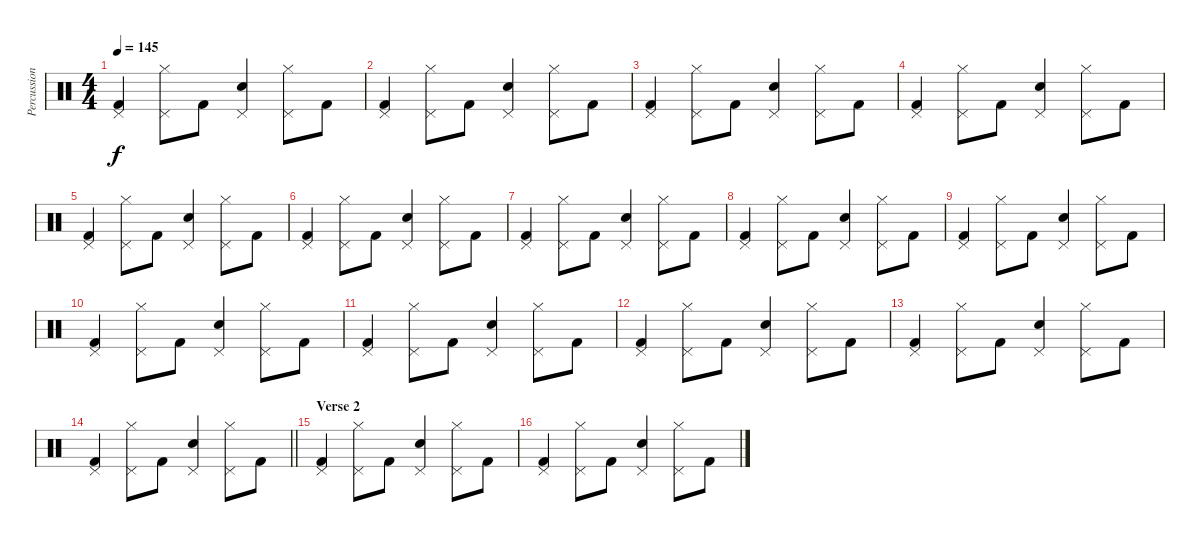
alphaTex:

\track ("Percussion" "Percussion") {instrument percussion}
\staff {score}
\articulation defaults
\ts (4 4)
\tempo 145
\clef neutral
\ks c
("Kick (hit) 2" "Pedal Hi-Hat (hit)").4{dy f} ("Hi-Hat (closed)" "Pedal Hi-Hat (hit)").8 "Kick (hit) 2".8 ("Snare (hit) 2" "Pedal Hi-Hat (hit)").4 ("Hi-Hat (closed)" "Pedal Hi-Hat (hit)").8 "Kick (hit) 2".8 |
("Kick (hit) 2" "Pedal Hi-Hat (hit)").4 ("Hi-Hat (closed)" "Pedal Hi-Hat (hit)").8 "Kick (hit) 2".8 ("Snare (hit) 2" "Pedal Hi-Hat (hit)").4 ("Hi-Hat (closed)" "Pedal Hi-Hat (hit)").8 "Kick (hit) 2".8 |
("Kick (hit) 2" "Pedal Hi-Hat (hit)").4 ("Hi-Hat (closed)" "Pedal Hi-Hat (hit)").8 "Kick (hit) 2".8 ("Snare (hit) 2" "Pedal Hi-Hat (hit)").4 ("Hi-Hat (closed)" "Pedal Hi-Hat (hit)").8 "Kick (hit) 2".8 |
("Kick (hit) 2" "Pedal Hi-Hat (hit)").4 ("Hi-Hat (closed)" "Pedal Hi-Hat (hit)").8 "Kick (hit) 2".8 ("Snare (hit) 2" "Pedal Hi-Hat (hit)").4 ("Hi-Hat (closed)" "Pedal Hi-Hat (hit)").8 "Kick (hit) 2".8 |
("Kick (hit) 2" "Pedal Hi-Hat (hit)").4 ("Hi-Hat (closed)" "Pedal Hi-Hat (hit)").8 "Kick (hit) 2".8 ("Snare (hit) 2" "Pedal Hi-Hat (hit)").4 ("Hi-Hat (closed)" "Pedal Hi-Hat (hit)").8 "Kick (hit) 2".8 |
("Kick (hit) 2" "Pedal Hi-Hat (hit)").4 ("Hi-Hat (closed)" "Pedal Hi-Hat (hit)").8 "Kick (hit) 2".8 ("Snare (hit) 2" "Pedal Hi-Hat (hit)").4 ("Hi-Hat (closed)" "Pedal Hi-Hat (hit)").8 "Kick (hit) 2".8 |
("Kick (hit) 2" "Pedal Hi-Hat (hit)").4 ("Hi-Hat (closed)" "Pedal Hi-Hat (hit)").8 "Kick (hit) 2".8 ("Snare (hit) 2" "Pedal Hi-Hat (hit)").4 ("Hi-Hat (closed)" "Pedal Hi-Hat (hit)").8 "Kick (hit) 2".8 |
("Kick (hit) 2" "Pedal Hi-Hat (hit)").4 ("Hi-Hat (closed)" "Pedal Hi-Hat (hit)").8 "Kick (hit) 2".8 ("Snare (hit) 2" "Pedal Hi-Hat (hit)").4 ("Hi-Hat (closed)" "Pedal Hi-Hat (hit)").8 "Kick (hit) 2".8 |
("Kick (hit) 2" "Pedal Hi-Hat (hit)").4 ("Hi-Hat (closed)" "Pedal Hi-Hat (hit)").8 "Kick (hit) 2".8 ("Snare (hit) 2" "Pedal Hi-Hat (hit)").4 ("Hi-Hat (closed)" "Pedal Hi-Hat (hit)").8 "Kick (hit) 2".8 |
("Kick (hit) 2" "Pedal Hi-Hat (hit)").4 ("Hi-Hat (closed)" "Pedal Hi-Hat (hit)").8 "Kick (hit) 2".8 ("Snare (hit) 2" "Pedal Hi-Hat (hit)").4 ("Hi-Hat (closed)" "Pedal Hi-Hat (hit)").8 "Kick (hit) 2".8 |
("Kick (hit) 2" "Pedal Hi-Hat (hit)").4 ("Hi-Hat (closed)" "Pedal Hi-Hat (hit)").8 "Kick (hit) 2".8 ("Snare (hit) 2" "Pedal Hi-Hat (hit)").4 ("Hi-Hat (closed)" "Pedal Hi-Hat (hit)").8 "Kick (hit) 2".8 |
("Kick (hit) 2" "Pedal Hi-Hat (hit)").4 ("Hi-Hat (closed)" "Pedal Hi-Hat (hit)").8 "Kick (hit) 2".8 ("Snare (hit) 2" "Pedal Hi-Hat (hit)").4 ("Hi-Hat (closed)" "Pedal Hi-Hat (hit)").8 "Kick (hit) 2".8 |
("Kick (hit) 2" "Pedal Hi-Hat (hit)").4 ("Hi-Hat (closed)" "Pedal Hi-Hat (hit)").8 "Kick (hit) 2".8 ("Snare (hit) 2" "Pedal Hi-Hat (hit)").4 ("Hi-Hat (closed)" "Pedal Hi-Hat (hit)").8 "Kick (hit) 2".8 |
\barLineRight lightlight
("Kick (hit) 2" "Pedal Hi-Hat (hit)").4 ("Hi-Hat (closed)" "Pedal Hi-Hat (hit)").8 "Kick (hit) 2".8 ("Snare (hit) 2" "Pedal Hi-Hat (hit)").4 ("Hi-Hat (closed)" "Pedal Hi-Hat (hit)").8 "Kick (hit) 2".8 |
\section ("" "Verse 2")
("Kick (hit) 2" "Pedal Hi-Hat (hit)").4 ("Hi-Hat (closed)" "Pedal Hi-Hat (hit)").8 "Kick (hit) 2".8 ("Snare (hit) 2" "Pedal Hi-Hat (hit)").4 ("Hi-Hat (closed)" "Pedal Hi-Hat (hit)").8 "Kick (hit) 2".8 |
("Kick (hit) 2" "Pedal Hi-Hat (hit)").4 ("Hi-Hat (closed)" "Pedal Hi-Hat (hit)").8 "Kick (hit) 2".8 ("Snare (hit) 2" "Pedal Hi-Hat (hit)").4 ("Hi-Hat (closed)" "Pedal Hi-Hat (hit)").8 "Kick (hit) 2".8
